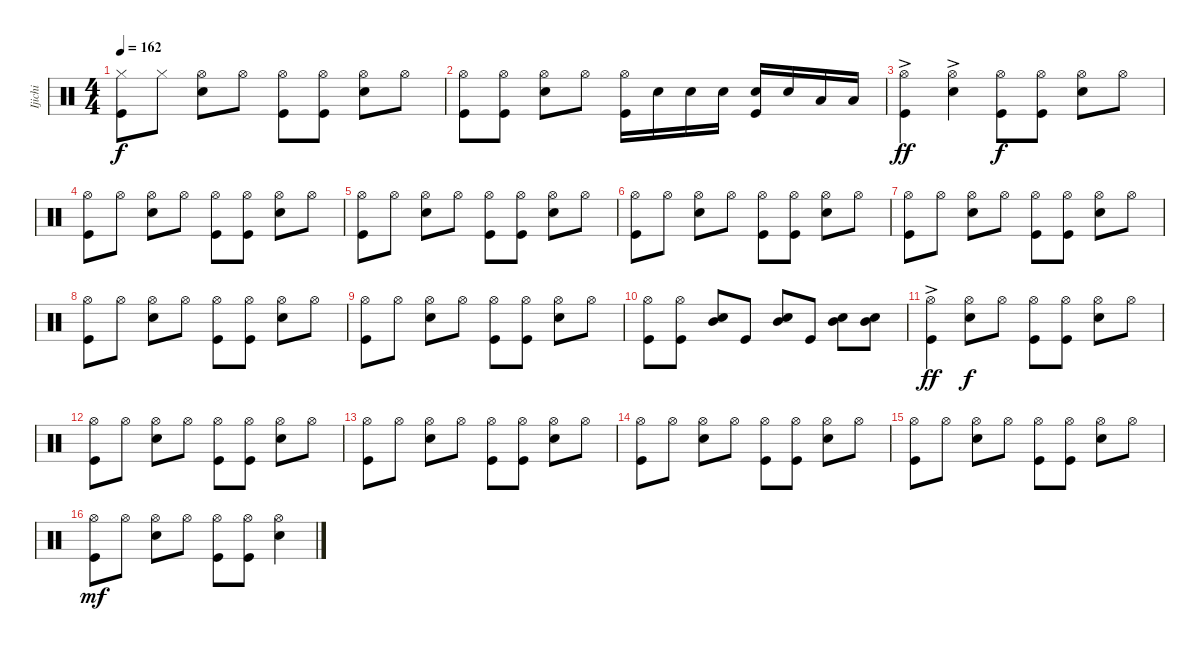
\track ("Ijichi" "Ijichi") {instrument percussion}
\staff {score}
\articulation defaults
\ts (4 4)
\tempo 162
\clef neutral
\ks c
("Hi-Hat (closed)" "Kick (hit)").8{dy f} "Hi-Hat (closed)".8 ("Hi-Hat (open)" "Snare (hit) 2").8 "Hi-Hat (open)".8 ("Hi-Hat (open)" "Kick (hit)").8 ("Hi-Hat (open)" "Kick (hit)").8 ("Hi-Hat (open)" "Snare (hit) 2").8 "Hi-Hat (open)".8 |
("Hi-Hat (open)" "Kick (hit)").8 ("Hi-Hat (open)" "Kick (hit)").8 ("Hi-Hat (open)" "Snare (hit) 2").8 "Hi-Hat (open)".8 ("Hi-Hat (open)" "Kick (hit)").16 "Snare (hit) 2".16 "Snare (hit) 2".16 "Snare (hit) 2".16 ("Snare (hit) 2" "Kick (hit)").16 "Snare (hit) 2".16 "Low Tom (hit)".16 "Low Tom (hit)".16 |
("Hi-Hat (open)"{ac} "Kick (hit)").4{dy ff} ("Hi-Hat (open)"{ac} "Snare (hit) 2").4 ("Hi-Hat (open)" "Kick (hit)").8{dy f} ("Hi-Hat (open)" "Kick (hit)").8 ("Hi-Hat (open)" "Snare (hit) 2").8 "Hi-Hat (open)".8 |
("Hi-Hat (open)" "Kick (hit)").8 "Hi-Hat (open)".8 ("Hi-Hat (open)" "Snare (hit) 2").8 "Hi-Hat (open)".8 ("Hi-Hat (open)" "Kick (hit)").8 ("Hi-Hat (open)" "Kick (hit)").8 ("Hi-Hat (open)" "Snare (hit) 2").8 "Hi-Hat (open)".8 |
("Hi-Hat (open)" "Kick (hit)").8 "Hi-Hat (open)".8 ("Hi-Hat (open)" "Snare (hit) 2").8 "Hi-Hat (open)".8 ("Hi-Hat (open)" "Kick (hit)").8 ("Hi-Hat (open)" "Kick (hit)").8 ("Hi-Hat (open)" "Snare (hit) 2").8 "Hi-Hat (open)".8 |
("Hi-Hat (open)" "Kick (hit)").8 "Hi-Hat (open)".8 ("Hi-Hat (open)" "Snare (hit) 2").8 "Hi-Hat (open)".8 ("Hi-Hat (open)" "Kick (hit)").8 ("Hi-Hat (open)" "Kick (hit)").8 ("Hi-Hat (open)" "Snare (hit) 2").8 "Hi-Hat (open)".8 |
("Hi-Hat (open)" "Kick (hit)").8 "Hi-Hat (open)".8 ("Hi-Hat (open)" "Snare (hit) 2").8 "Hi-Hat (open)".8 ("Hi-Hat (open)" "Kick (hit)").8 ("Hi-Hat (open)" "Kick (hit)").8 ("Hi-Hat (open)" "Snare (hit) 2").8 "Hi-Hat (open)".8 |
("Hi-Hat (open)" "Kick (hit)").8 "Hi-Hat (open)".8 ("Hi-Hat (open)" "Snare (hit) 2").8 "Hi-Hat (open)".8 ("Hi-Hat (open)" "Kick (hit)").8 ("Hi-Hat (open)" "Kick (hit)").8 ("Hi-Hat (open)" "Snare (hit) 2").8 "Hi-Hat (open)".8 |
("Hi-Hat (open)" "Kick (hit)").8 "Hi-Hat (open)".8 ("Hi-Hat (open)" "Snare (hit) 2").8 "Hi-Hat (open)".8 ("Hi-Hat (open)" "Kick (hit)").8 ("Hi-Hat (open)" "Kick (hit)").8 ("Hi-Hat (open)" "Snare (hit) 2").8 "Hi-Hat (open)".8 |
("Hi-Hat (open)" "Kick (hit)").8 ("Hi-Hat (open)" "Kick (hit)").8 ("Snare (hit) 2" "Mid Tom (hit)").8 "Kick (hit)".8 ("Snare (hit) 2" "Mid Tom (hit)").8 "Kick (hit)".8 ("Snare (hit) 2" "Mid Tom (hit)").8 ("Snare (hit) 2" "Mid Tom (hit)").8 |
("Hi-Hat (open)"{ac} "Kick (hit)").4{dy ff} ("Hi-Hat (open)" "Snare (hit) 2").8{dy f} "Hi-Hat (open)".8 ("Hi-Hat (open)" "Kick (hit)").8 ("Hi-Hat (open)" "Kick (hit)").8 ("Hi-Hat (open)" "Snare (hit) 2").8 "Hi-Hat (open)".8 |
("Hi-Hat (open)" "Kick (hit)").8 "Hi-Hat (open)".8 ("Hi-Hat (open)" "Snare (hit) 2").8 "Hi-Hat (open)".8 ("Hi-Hat (open)" "Kick (hit)").8 ("Hi-Hat (open)" "Kick (hit)").8 ("Hi-Hat (open)" "Snare (hit) 2").8 "Hi-Hat (open)".8 |
("Hi-Hat (open)" "Kick (hit)").8 "Hi-Hat (open)".8 ("Hi-Hat (open)" "Snare (hit) 2").8 "Hi-Hat (open)".8 ("Hi-Hat (open)" "Kick (hit)").8 ("Hi-Hat (open)" "Kick (hit)").8 ("Hi-Hat (open)" "Snare (hit) 2").8 "Hi-Hat (open)".8 |
("Hi-Hat (open)" "Kick (hit)").8 "Hi-Hat (open)".8 ("Hi-Hat (open)" "Snare (hit) 2").8 "Hi-Hat (open)".8 ("Hi-Hat (open)" "Kick (hit)").8 ("Hi-Hat (open)" "Kick (hit)").8 ("Hi-Hat (open)" "Snare (hit) 2").8 "Hi-Hat (open)".8 |
("Hi-Hat (open)" "Kick (hit)").8 "Hi-Hat (open)".8 ("Hi-Hat (open)" "Snare (hit) 2").8 "Hi-Hat (open)".8 ("Hi-Hat (open)" "Kick (hit)").8 ("Hi-Hat (open)" "Kick (hit)").8 ("Hi-Hat (open)" "Snare (hit) 2").8 "Hi-Hat (open)".8 |
("Hi-Hat (open)" "Kick (hit)").8{dy mf} "Hi-Hat (open)".8 ("Hi-Hat (open)" "Snare (hit) 2").8 "Hi-Hat (open)".8 ("Hi-Hat (open)" "Kick (hit)").8 ("Hi-Hat (open)" "Kick (hit)").8 ("Hi-Hat (open)" "Snare (hit) 2").4
